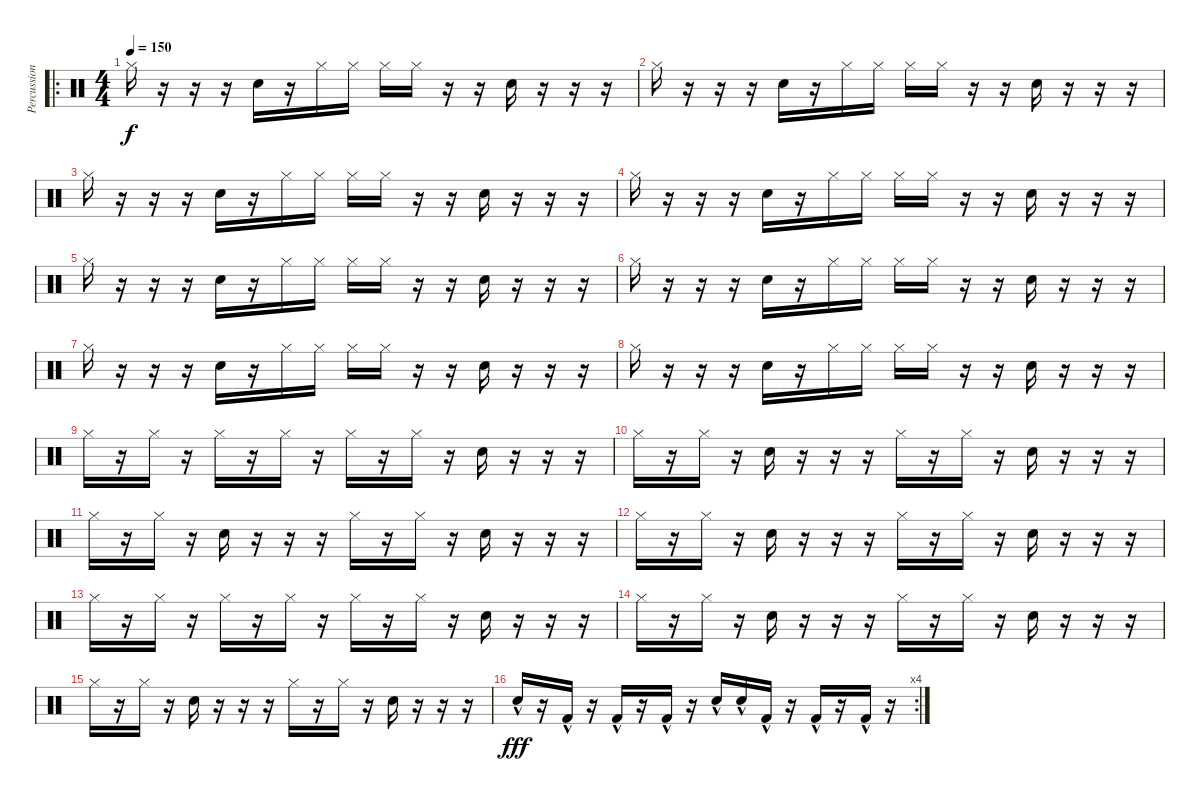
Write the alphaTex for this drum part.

\track ("Percussion" "Percussion") {instrument percussion}
\staff {score}
\articulation defaults
\ro
\ts (4 4)
\tempo 150
\clef neutral
\ks c "Hi-Hat (closed)".16{dy f}
r.16 r.16 r.16 "Snare (hit) 2".16 r.16 "Hi-Hat (closed)".16 "Hi-Hat (closed)".16 "Hi-Hat (closed)".16 "Hi-Hat (closed)".16 r.16 r.16 "Snare (hit) 2".16 r.16 r.16 r.16 |
"Hi-Hat (closed)".16 r.16 r.16 r.16 "Snare (hit) 2".16 r.16 "Hi-Hat (closed)".16 "Hi-Hat (closed)".16 "Hi-Hat (closed)".16 "Hi-Hat (closed)".16 r.16 r.16 "Snare (hit) 2".16 r.16 r.16 r.16 |
"Hi-Hat (closed)".16 r.16 r.16 r.16 "Snare (hit) 2".16 r.16 "Hi-Hat (closed)".16 "Hi-Hat (closed)".16 "Hi-Hat (closed)".16 "Hi-Hat (closed)".16 r.16 r.16 "Snare (hit) 2".16 r.16 r.16 r.16 |
"Hi-Hat (closed)".16 r.16 r.16 r.16 "Snare (hit) 2".16 r.16 "Hi-Hat (closed)".16 "Hi-Hat (closed)".16 "Hi-Hat (closed)".16 "Hi-Hat (closed)".16 r.16 r.16 "Snare (hit) 2".16 r.16 r.16 r.16 |
"Hi-Hat (closed)".16 r.16 r.16 r.16 "Snare (hit) 2".16 r.16 "Hi-Hat (closed)".16 "Hi-Hat (closed)".16 "Hi-Hat (closed)".16 "Hi-Hat (closed)".16 r.16 r.16 "Snare (hit) 2".16 r.16 r.16 r.16 |
"Hi-Hat (closed)".16 r.16 r.16 r.16 "Snare (hit) 2".16 r.16 "Hi-Hat (closed)".16 "Hi-Hat (closed)".16 "Hi-Hat (closed)".16 "Hi-Hat (closed)".16 r.16 r.16 "Snare (hit) 2".16 r.16 r.16 r.16 |
"Hi-Hat (closed)".16 r.16 r.16 r.16 "Snare (hit) 2".16 r.16 "Hi-Hat (closed)".16 "Hi-Hat (closed)".16 "Hi-Hat (closed)".16 "Hi-Hat (closed)".16 r.16 r.16 "Snare (hit) 2".16 r.16 r.16 r.16 |
"Hi-Hat (closed)".16 r.16 r.16 r.16 "Snare (hit) 2".16 r.16 "Hi-Hat (closed)".16 "Hi-Hat (closed)".16 "Hi-Hat (closed)".16 "Hi-Hat (closed)".16 r.16 r.16 "Snare (hit) 2".16 r.16 r.16 r.16 |
"Hi-Hat (closed)".16 r.16 "Hi-Hat (closed)".16 r.16 "Hi-Hat (closed)".16 r.16 "Hi-Hat (closed)".16 r.16 "Hi-Hat (closed)".16 r.16 "Hi-Hat (closed)".16 r.16 "Snare (hit) 2".16 r.16 r.16 r.16 |
"Hi-Hat (closed)".16 r.16 "Hi-Hat (closed)".16 r.16 "Snare (hit) 2".16 r.16 r.16 r.16 "Hi-Hat (closed)".16 r.16 "Hi-Hat (closed)".16 r.16 "Snare (hit) 2".16 r.16 r.16 r.16 |
"Hi-Hat (closed)".16 r.16 "Hi-Hat (closed)".16 r.16 "Snare (hit) 2".16 r.16 r.16 r.16 "Hi-Hat (closed)".16 r.16 "Hi-Hat (closed)".16 r.16 "Snare (hit) 2".16 r.16 r.16 r.16 |
"Hi-Hat (closed)".16 r.16 "Hi-Hat (closed)".16 r.16 "Snare (hit) 2".16 r.16 r.16 r.16 "Hi-Hat (closed)".16 r.16 "Hi-Hat (closed)".16 r.16 "Snare (hit) 2".16 r.16 r.16 r.16 |
"Hi-Hat (closed)".16 r.16 "Hi-Hat (closed)".16 r.16 "Hi-Hat (closed)".16 r.16 "Hi-Hat (closed)".16 r.16 "Hi-Hat (closed)".16 r.16 "Hi-Hat (closed)".16 r.16 "Snare (hit) 2".16 r.16 r.16 r.16 |
"Hi-Hat (closed)".16 r.16 "Hi-Hat (closed)".16 r.16 "Snare (hit) 2".16 r.16 r.16 r.16 "Hi-Hat (closed)".16 r.16 "Hi-Hat (closed)".16 r.16 "Snare (hit) 2".16 r.16 r.16 r.16 |
"Hi-Hat (closed)".16 r.16 "Hi-Hat (closed)".16 r.16 "Snare (hit) 2".16 r.16 r.16 r.16 "Hi-Hat (closed)".16 r.16 "Hi-Hat (closed)".16 r.16 "Snare (hit) 2".16 r.16 r.16 r.16 |
\rc 4 "Snare (hit) 2"{hac}.16{dy fff}
r.16 "Kick (hit) 2"{hac}.16 r.16 "Kick (hit) 2"{hac}.16 r.16 "Kick (hit) 2"{hac}.16 r.16 "Snare (hit) 2"{hac}.16 "Snare (hit) 2"{hac}.16 "Kick (hit) 2"{hac}.16 r.16 "Kick (hit) 2"{hac}.16 r.16 "Kick (hit) 2"{hac}.16 r.16
